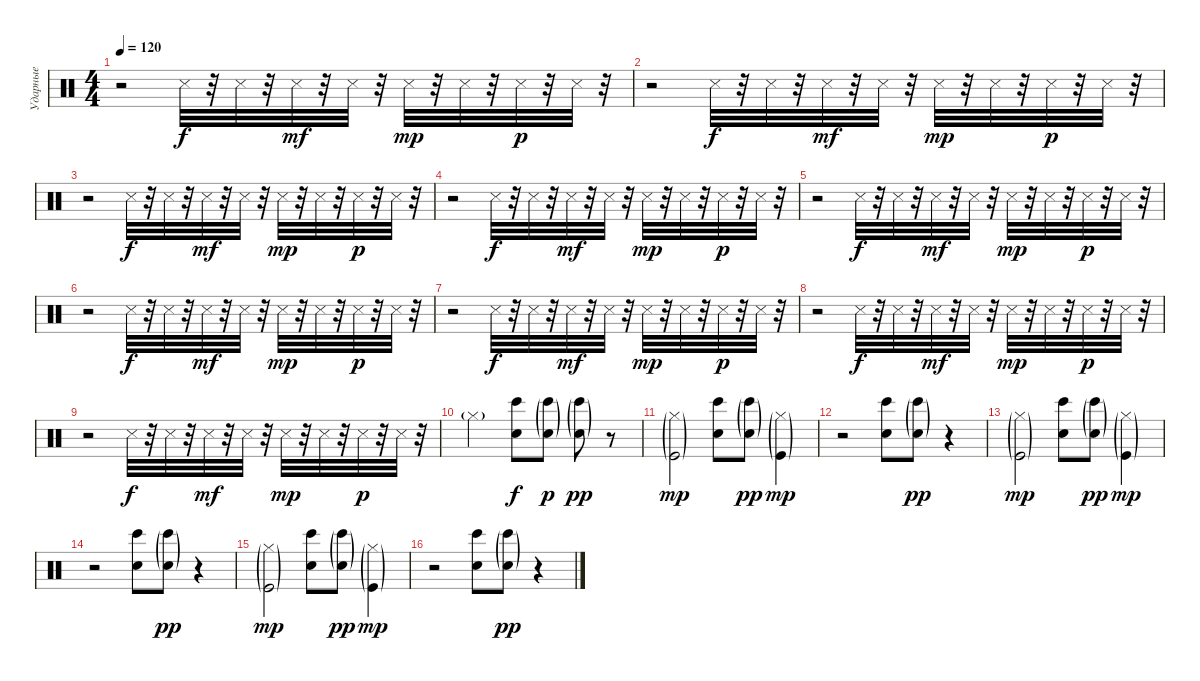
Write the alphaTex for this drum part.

\track ("Ударные" "Ударные") {instrument percussion}
\staff {score}
\articulation defaults
\ts (4 4)
\tempo 120
\clef neutral
\ks c
r.2{dy p} "Snare (side stick) 3".32{dy f} r.32 "Snare (side stick) 3".32 r.32 "Snare (side stick) 3".32{dy mf} r.32 "Snare (side stick) 3".32 r.32 "Snare (side stick) 3".32{dy mp} r.32 "Snare (side stick) 3".32 r.32 "Snare (side stick) 3".32{dy p} r.32 "Snare (side stick) 3".32 r.32 |
r.2 "Snare (side stick) 3".32{dy f} r.32 "Snare (side stick) 3".32 r.32 "Snare (side stick) 3".32{dy mf} r.32 "Snare (side stick) 3".32 r.32 "Snare (side stick) 3".32{dy mp} r.32 "Snare (side stick) 3".32 r.32 "Snare (side stick) 3".32{dy p} r.32 "Snare (side stick) 3".32 r.32 |
r.2 "Snare (side stick) 3".32{dy f} r.32 "Snare (side stick) 3".32 r.32 "Snare (side stick) 3".32{dy mf} r.32 "Snare (side stick) 3".32 r.32 "Snare (side stick) 3".32{dy mp} r.32 "Snare (side stick) 3".32 r.32 "Snare (side stick) 3".32{dy p} r.32 "Snare (side stick) 3".32 r.32 |
r.2 "Snare (side stick) 3".32{dy f} r.32 "Snare (side stick) 3".32 r.32 "Snare (side stick) 3".32{dy mf} r.32 "Snare (side stick) 3".32 r.32 "Snare (side stick) 3".32{dy mp} r.32 "Snare (side stick) 3".32 r.32 "Snare (side stick) 3".32{dy p} r.32 "Snare (side stick) 3".32 r.32 |
r.2 "Snare (side stick) 3".32{dy f} r.32 "Snare (side stick) 3".32 r.32 "Snare (side stick) 3".32{dy mf} r.32 "Snare (side stick) 3".32 r.32 "Snare (side stick) 3".32{dy mp} r.32 "Snare (side stick) 3".32 r.32 "Snare (side stick) 3".32{dy p} r.32 "Snare (side stick) 3".32 r.32 |
r.2 "Snare (side stick) 3".32{dy f} r.32 "Snare (side stick) 3".32 r.32 "Snare (side stick) 3".32{dy mf} r.32 "Snare (side stick) 3".32 r.32 "Snare (side stick) 3".32{dy mp} r.32 "Snare (side stick) 3".32 r.32 "Snare (side stick) 3".32{dy p} r.32 "Snare (side stick) 3".32 r.32 |
r.2 "Snare (side stick) 3".32{dy f} r.32 "Snare (side stick) 3".32 r.32 "Snare (side stick) 3".32{dy mf} r.32 "Snare (side stick) 3".32 r.32 "Snare (side stick) 3".32{dy mp} r.32 "Snare (side stick) 3".32 r.32 "Snare (side stick) 3".32{dy p} r.32 "Snare (side stick) 3".32 r.32 |
r.2 "Snare (side stick) 3".32{dy f} r.32 "Snare (side stick) 3".32 r.32 "Snare (side stick) 3".32{dy mf} r.32 "Snare (side stick) 3".32 r.32 "Snare (side stick) 3".32{dy mp} r.32 "Snare (side stick) 3".32 r.32 "Snare (side stick) 3".32{dy p} r.32 "Snare (side stick) 3".32 r.32 |
r.2 "Snare (side stick) 3".32{dy f} r.32 "Snare (side stick) 3".32 r.32 "Snare (side stick) 3".32{dy mf} r.32 "Snare (side stick) 3".32 r.32 "Snare (side stick) 3".32{dy mp} r.32 "Snare (side stick) 3".32 r.32 "Snare (side stick) 3".32{dy p} r.32 "Snare (side stick) 3".32 r.32 |
"Hi-Hat (closed)"{g}.2 ("Bongo High (hit)" "Hand Clap (hit)").8{dy f} ("Bongo High (hit)"{g} "Hand Clap (hit)"{g}).8{dy p} ("Bongo High (hit)"{g} "Hand Clap (hit)"{g}).8{dy pp} r.8 |
("Kick (hit)"{g} "Hi-Hat (closed)"{g}).2{dy mp} ("Bongo High (hit)" "Hand Clap (hit)").8 ("Bongo High (hit)"{g} "Hand Clap (hit)"{g}).8{dy pp} ("Kick (hit)"{g} "Hi-Hat (closed)"{g}).4{dy mp} |
r.2 ("Bongo High (hit)" "Hand Clap (hit)").8 ("Bongo High (hit)"{g} "Hand Clap (hit)"{g}).8{dy pp} r.4 |
("Kick (hit)"{g} "Hi-Hat (closed)"{g}).2{dy mp} ("Bongo High (hit)" "Hand Clap (hit)").8 ("Bongo High (hit)"{g} "Hand Clap (hit)"{g}).8{dy pp} ("Kick (hit)"{g} "Hi-Hat (closed)"{g}).4{dy mp} |
r.2 ("Bongo High (hit)" "Hand Clap (hit)").8 ("Bongo High (hit)"{g} "Hand Clap (hit)"{g}).8{dy pp} r.4 |
("Kick (hit)"{g} "Hi-Hat (closed)"{g}).2{dy mp} ("Bongo High (hit)" "Hand Clap (hit)").8 ("Bongo High (hit)"{g} "Hand Clap (hit)"{g}).8{dy pp} ("Kick (hit)"{g} "Hi-Hat (closed)"{g}).4{dy mp} |
r.2 ("Bongo High (hit)" "Hand Clap (hit)").8 ("Bongo High (hit)"{g} "Hand Clap (hit)"{g}).8{dy pp} r.4
